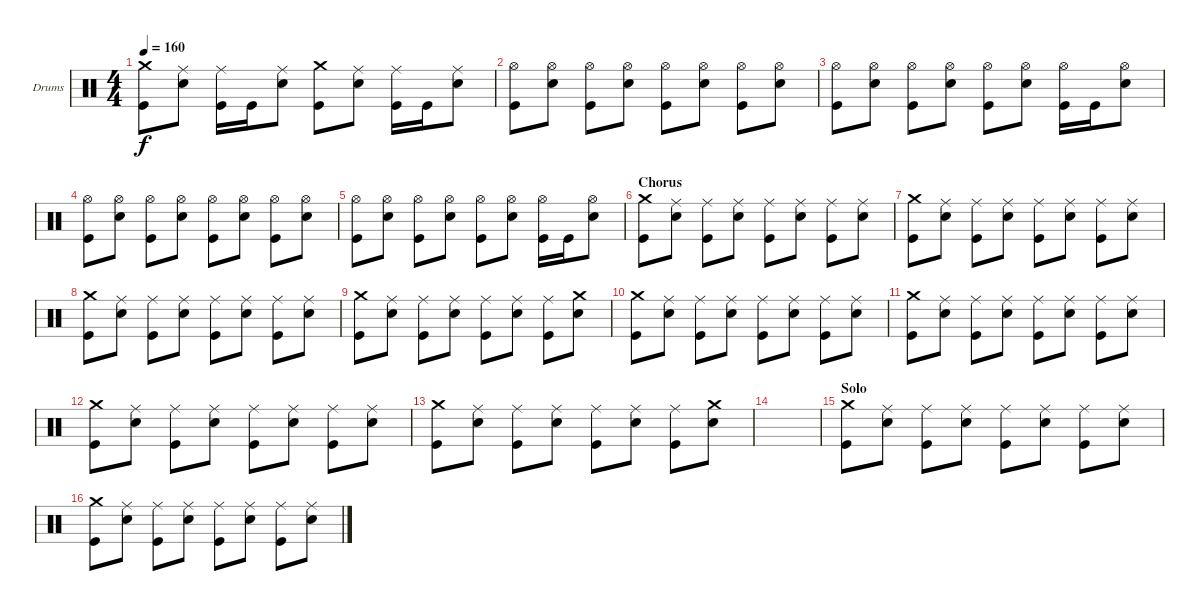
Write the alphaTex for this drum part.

\bracketExtendMode groupsimilarinstruments
\firstSystemTrackNameOrientation horizontal
\otherSystemsTrackNameOrientation horizontal
\track ("Drums" "Drums") {instrument percussion}
\staff {score}
\articulation defaults
\ts (4 4)
\tempo 160
\clef neutral
\ks c
("Crash medium (hit)" "Kick (hit)").8{dy f} ("Ride (middle)" "Snare (hit) 2").8 ("Ride (middle)" "Kick (hit)").16 "Kick (hit)".16 ("Ride (middle)" "Snare (hit) 2").8 ("Crash medium (hit)" "Kick (hit)").8 ("Ride (middle)" "Snare (hit) 2").8 ("Ride (middle)" "Kick (hit)").16 "Kick (hit)".16 ("Ride (middle)" "Snare (hit) 2").8 |
("Hi-Hat (open)" "Kick (hit)").8 ("Hi-Hat (open)" "Snare (hit) 2").8 ("Hi-Hat (open)" "Kick (hit)").8 ("Hi-Hat (open)" "Snare (hit) 2").8 ("Hi-Hat (open)" "Kick (hit)").8 ("Hi-Hat (open)" "Snare (hit) 2").8 ("Hi-Hat (open)" "Kick (hit)").8 ("Hi-Hat (open)" "Snare (hit) 2").8 |
("Hi-Hat (open)" "Kick (hit)").8 ("Hi-Hat (open)" "Snare (hit) 2").8 ("Hi-Hat (open)" "Kick (hit)").8 ("Hi-Hat (open)" "Snare (hit) 2").8 ("Hi-Hat (open)" "Kick (hit)").8 ("Hi-Hat (open)" "Snare (hit) 2").8 ("Hi-Hat (open)" "Kick (hit)").16 "Kick (hit)".16 ("Hi-Hat (open)" "Snare (hit) 2").8 |
("Hi-Hat (open)" "Kick (hit)").8 ("Hi-Hat (open)" "Snare (hit) 2").8 ("Hi-Hat (open)" "Kick (hit)").8 ("Hi-Hat (open)" "Snare (hit) 2").8 ("Hi-Hat (open)" "Kick (hit)").8 ("Hi-Hat (open)" "Snare (hit) 2").8 ("Hi-Hat (open)" "Kick (hit)").8 ("Hi-Hat (open)" "Snare (hit) 2").8 |
("Hi-Hat (open)" "Kick (hit)").8 ("Hi-Hat (open)" "Snare (hit) 2").8 ("Hi-Hat (open)" "Kick (hit)").8 ("Hi-Hat (open)" "Snare (hit) 2").8 ("Hi-Hat (open)" "Kick (hit)").8 ("Hi-Hat (open)" "Snare (hit) 2").8 ("Hi-Hat (open)" "Kick (hit)").16 "Kick (hit)".16 ("Hi-Hat (open)" "Snare (hit) 2").8 |
\section ("" "Chorus")
("Crash medium (hit)" "Kick (hit)").8 ("Ride (middle)" "Snare (hit) 2").8 ("Ride (middle)" "Kick (hit)").8 ("Ride (middle)" "Snare (hit) 2").8 ("Ride (middle)" "Kick (hit)").8 ("Ride (middle)" "Snare (hit) 2").8 ("Ride (middle)" "Kick (hit)").8 ("Ride (middle)" "Snare (hit) 2").8 |
("Crash medium (hit)" "Kick (hit)").8 ("Ride (middle)" "Snare (hit) 2").8 ("Ride (middle)" "Kick (hit)").8 ("Ride (middle)" "Snare (hit) 2").8 ("Ride (middle)" "Kick (hit)").8 ("Ride (middle)" "Snare (hit) 2").8 ("Ride (middle)" "Kick (hit)").8 ("Ride (middle)" "Snare (hit) 2").8 |
("Crash medium (hit)" "Kick (hit)").8 ("Ride (middle)" "Snare (hit) 2").8 ("Ride (middle)" "Kick (hit)").8 ("Ride (middle)" "Snare (hit) 2").8 ("Ride (middle)" "Kick (hit)").8 ("Ride (middle)" "Snare (hit) 2").8 ("Ride (middle)" "Kick (hit)").8 ("Ride (middle)" "Snare (hit) 2").8 |
("Crash medium (hit)" "Kick (hit)").8 ("Ride (middle)" "Snare (hit) 2").8 ("Ride (middle)" "Kick (hit)").8 ("Ride (middle)" "Snare (hit) 2").8 ("Ride (middle)" "Kick (hit)").8 ("Ride (middle)" "Snare (hit) 2").8 ("Ride (middle)" "Kick (hit)").8 ("Crash medium (hit)" "Snare (hit) 2").8 |
("Crash medium (hit)" "Kick (hit)").8 ("Ride (middle)" "Snare (hit) 2").8 ("Ride (middle)" "Kick (hit)").8 ("Ride (middle)" "Snare (hit) 2").8 ("Ride (middle)" "Kick (hit)").8 ("Ride (middle)" "Snare (hit) 2").8 ("Ride (middle)" "Kick (hit)").8 ("Ride (middle)" "Snare (hit) 2").8 |
("Crash medium (hit)" "Kick (hit)").8 ("Ride (middle)" "Snare (hit) 2").8 ("Ride (middle)" "Kick (hit)").8 ("Ride (middle)" "Snare (hit) 2").8 ("Ride (middle)" "Kick (hit)").8 ("Ride (middle)" "Snare (hit) 2").8 ("Ride (middle)" "Kick (hit)").8 ("Ride (middle)" "Snare (hit) 2").8 |
("Crash medium (hit)" "Kick (hit)").8 ("Ride (middle)" "Snare (hit) 2").8 ("Ride (middle)" "Kick (hit)").8 ("Ride (middle)" "Snare (hit) 2").8 ("Ride (middle)" "Kick (hit)").8 ("Ride (middle)" "Snare (hit) 2").8 ("Ride (middle)" "Kick (hit)").8 ("Ride (middle)" "Snare (hit) 2").8 |
("Crash medium (hit)" "Kick (hit)").8 ("Ride (middle)" "Snare (hit) 2").8 ("Ride (middle)" "Kick (hit)").8 ("Ride (middle)" "Snare (hit) 2").8 ("Ride (middle)" "Kick (hit)").8 ("Ride (middle)" "Snare (hit) 2").8 ("Ride (middle)" "Kick (hit)").8 ("Crash medium (hit)" "Snare (hit) 2").8 |
|
\section ("" "Solo")
("Crash medium (hit)" "Kick (hit)").8 ("Ride (middle)" "Snare (hit) 2").8 ("Ride (middle)" "Kick (hit)").8 ("Ride (middle)" "Snare (hit) 2").8 ("Ride (middle)" "Kick (hit)").8 ("Ride (middle)" "Snare (hit) 2").8 ("Ride (middle)" "Kick (hit)").8 ("Ride (middle)" "Snare (hit) 2").8 |
("Crash medium (hit)" "Kick (hit)").8 ("Ride (middle)" "Snare (hit) 2").8 ("Ride (middle)" "Kick (hit)").8 ("Ride (middle)" "Snare (hit) 2").8 ("Ride (middle)" "Kick (hit)").8 ("Ride (middle)" "Snare (hit) 2").8 ("Ride (middle)" "Kick (hit)").8 ("Ride (middle)" "Snare (hit) 2").8
